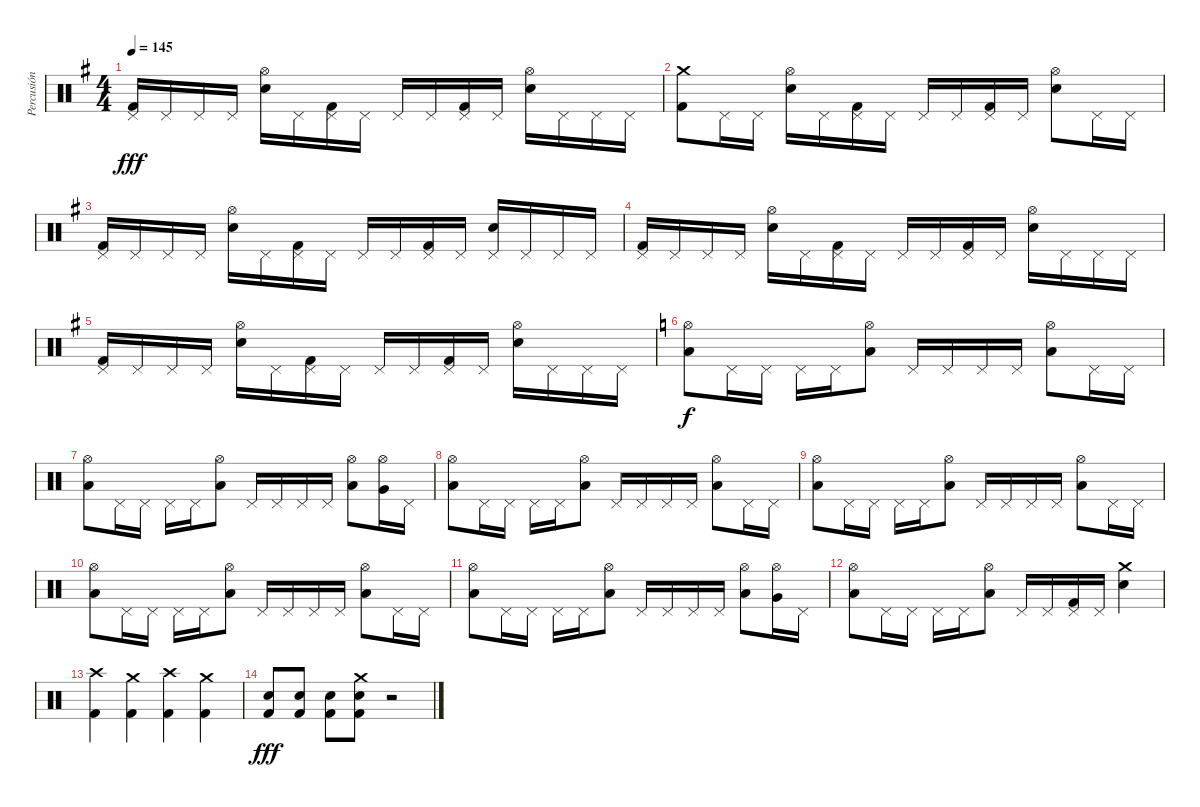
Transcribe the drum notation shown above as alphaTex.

\track ("Percusión" "Percusión") {instrument percussion}
\staff {score}
\articulation defaults
\ts (4 4)
\tempo 145
\clef neutral
\ks g
("Pedal Hi-Hat (hit)" "Kick (hit) 2").16{dy fff} "Pedal Hi-Hat (hit)".16 "Pedal Hi-Hat (hit)".16 "Pedal Hi-Hat (hit)".16 ("Hi-Hat (open)" "Electric Snare (hit)").16 "Pedal Hi-Hat (hit)".16 ("Pedal Hi-Hat (hit)" "Kick (hit) 2").16 "Pedal Hi-Hat (hit)".16 "Pedal Hi-Hat (hit)".16 "Pedal Hi-Hat (hit)".16 ("Pedal Hi-Hat (hit)" "Kick (hit) 2").16 "Pedal Hi-Hat (hit)".16 ("Hi-Hat (open)" "Electric Snare (hit)").16 "Pedal Hi-Hat (hit)".16 "Pedal Hi-Hat (hit)".16 "Pedal Hi-Hat (hit)".16 |
("Crash medium (hit)" "Kick (hit) 2").8 "Pedal Hi-Hat (hit)".16 "Pedal Hi-Hat (hit)".16 ("Hi-Hat (open)" "Electric Snare (hit)").16 "Pedal Hi-Hat (hit)".16 ("Pedal Hi-Hat (hit)" "Kick (hit) 2").16 "Pedal Hi-Hat (hit)".16 "Pedal Hi-Hat (hit)".16 "Pedal Hi-Hat (hit)".16 ("Pedal Hi-Hat (hit)" "Kick (hit) 2").16 "Pedal Hi-Hat (hit)".16 ("Hi-Hat (open)" "Electric Snare (hit)").8 "Pedal Hi-Hat (hit)".16 "Pedal Hi-Hat (hit)".16 |
("Pedal Hi-Hat (hit)" "Kick (hit) 2").16 "Pedal Hi-Hat (hit)".16 "Pedal Hi-Hat (hit)".16 "Pedal Hi-Hat (hit)".16 ("Hi-Hat (open)" "Electric Snare (hit)").16 "Pedal Hi-Hat (hit)".16 ("Pedal Hi-Hat (hit)" "Kick (hit) 2").16 "Pedal Hi-Hat (hit)".16 "Pedal Hi-Hat (hit)".16 "Pedal Hi-Hat (hit)".16 ("Pedal Hi-Hat (hit)" "Kick (hit) 2").16 "Pedal Hi-Hat (hit)".16 ("Pedal Hi-Hat (hit)" "Electric Snare (hit)").16 "Pedal Hi-Hat (hit)".16 "Pedal Hi-Hat (hit)".16 "Pedal Hi-Hat (hit)".16 |
("Pedal Hi-Hat (hit)" "Kick (hit) 2").16 "Pedal Hi-Hat (hit)".16 "Pedal Hi-Hat (hit)".16 "Pedal Hi-Hat (hit)".16 ("Hi-Hat (open)" "Electric Snare (hit)").16 "Pedal Hi-Hat (hit)".16 ("Pedal Hi-Hat (hit)" "Kick (hit) 2").16 "Pedal Hi-Hat (hit)".16 "Pedal Hi-Hat (hit)".16 "Pedal Hi-Hat (hit)".16 ("Pedal Hi-Hat (hit)" "Kick (hit) 2").16 "Pedal Hi-Hat (hit)".16 ("Hi-Hat (open)" "Electric Snare (hit)").16 "Pedal Hi-Hat (hit)".16 "Pedal Hi-Hat (hit)".16 "Pedal Hi-Hat (hit)".16 |
("Pedal Hi-Hat (hit)" "Kick (hit) 2").16 "Pedal Hi-Hat (hit)".16 "Pedal Hi-Hat (hit)".16 "Pedal Hi-Hat (hit)".16 ("Hi-Hat (open)" "Electric Snare (hit)").16 "Pedal Hi-Hat (hit)".16 ("Pedal Hi-Hat (hit)" "Kick (hit) 2").16 "Pedal Hi-Hat (hit)".16 "Pedal Hi-Hat (hit)".16 "Pedal Hi-Hat (hit)".16 ("Pedal Hi-Hat (hit)" "Kick (hit) 2").16 "Pedal Hi-Hat (hit)".16 ("Hi-Hat (open)" "Electric Snare (hit)").16 "Pedal Hi-Hat (hit)".16 "Pedal Hi-Hat (hit)".16 "Pedal Hi-Hat (hit)".16 |
\ks c
("Hi-Hat (open)" "Low Tom (hit)").8{dy f} "Pedal Hi-Hat (hit)".16 "Pedal Hi-Hat (hit)".16 "Pedal Hi-Hat (hit)".16 "Pedal Hi-Hat (hit)".16 ("Hi-Hat (open)" "Low Tom (hit)").8 "Pedal Hi-Hat (hit)".16 "Pedal Hi-Hat (hit)".16 "Pedal Hi-Hat (hit)".16 "Pedal Hi-Hat (hit)".16 ("Hi-Hat (open)" "Low Tom (hit)").8 "Pedal Hi-Hat (hit)".16 "Pedal Hi-Hat (hit)".16 |
("Hi-Hat (open)" "Low Tom (hit)").8 "Pedal Hi-Hat (hit)".16 "Pedal Hi-Hat (hit)".16 "Pedal Hi-Hat (hit)".16 "Pedal Hi-Hat (hit)".16 ("Hi-Hat (open)" "Low Tom (hit)").8 "Pedal Hi-Hat (hit)".16 "Pedal Hi-Hat (hit)".16 "Pedal Hi-Hat (hit)".16 "Pedal Hi-Hat (hit)".16 ("Hi-Hat (open)" "Low Tom (hit)").8 ("Hi-Hat (open)" "Very Low Tom (hit)").16 "Pedal Hi-Hat (hit)".16 |
("Hi-Hat (open)" "Low Tom (hit)").8 "Pedal Hi-Hat (hit)".16 "Pedal Hi-Hat (hit)".16 "Pedal Hi-Hat (hit)".16 "Pedal Hi-Hat (hit)".16 ("Hi-Hat (open)" "Low Tom (hit)").8 "Pedal Hi-Hat (hit)".16 "Pedal Hi-Hat (hit)".16 "Pedal Hi-Hat (hit)".16 "Pedal Hi-Hat (hit)".16 ("Hi-Hat (open)" "Low Tom (hit)").8 "Pedal Hi-Hat (hit)".16 "Pedal Hi-Hat (hit)".16 |
("Hi-Hat (open)" "Low Tom (hit)").8 "Pedal Hi-Hat (hit)".16 "Pedal Hi-Hat (hit)".16 "Pedal Hi-Hat (hit)".16 "Pedal Hi-Hat (hit)".16 ("Hi-Hat (open)" "Low Tom (hit)").8 "Pedal Hi-Hat (hit)".16 "Pedal Hi-Hat (hit)".16 "Pedal Hi-Hat (hit)".16 "Pedal Hi-Hat (hit)".16 ("Hi-Hat (open)" "Low Tom (hit)").8 "Pedal Hi-Hat (hit)".16 "Pedal Hi-Hat (hit)".16 |
("Hi-Hat (open)" "Low Tom (hit)").8 "Pedal Hi-Hat (hit)".16 "Pedal Hi-Hat (hit)".16 "Pedal Hi-Hat (hit)".16 "Pedal Hi-Hat (hit)".16 ("Hi-Hat (open)" "Low Tom (hit)").8 "Pedal Hi-Hat (hit)".16 "Pedal Hi-Hat (hit)".16 "Pedal Hi-Hat (hit)".16 "Pedal Hi-Hat (hit)".16 ("Hi-Hat (open)" "Low Tom (hit)").8 "Pedal Hi-Hat (hit)".16 "Pedal Hi-Hat (hit)".16 |
("Hi-Hat (open)" "Low Tom (hit)").8 "Pedal Hi-Hat (hit)".16 "Pedal Hi-Hat (hit)".16 "Pedal Hi-Hat (hit)".16 "Pedal Hi-Hat (hit)".16 ("Hi-Hat (open)" "Low Tom (hit)").8 "Pedal Hi-Hat (hit)".16 "Pedal Hi-Hat (hit)".16 "Pedal Hi-Hat (hit)".16 "Pedal Hi-Hat (hit)".16 ("Hi-Hat (open)" "Low Tom (hit)").8 ("Hi-Hat (open)" "Very Low Tom (hit)").16 "Pedal Hi-Hat (hit)".16 |
("Hi-Hat (open)" "Low Tom (hit)").8 "Pedal Hi-Hat (hit)".16 "Pedal Hi-Hat (hit)".16 "Pedal Hi-Hat (hit)".16 "Pedal Hi-Hat (hit)".16 ("Hi-Hat (open)" "Low Tom (hit)").8 "Pedal Hi-Hat (hit)".16 "Pedal Hi-Hat (hit)".16 ("Pedal Hi-Hat (hit)" "Kick (hit) 2").16 "Pedal Hi-Hat (hit)".16 ("Crash medium (hit)" "Electric Snare (hit)").4 |
("Crash high (hit)" "Kick (hit) 2").4 ("Crash medium (hit)" "Kick (hit) 2").4 ("Crash high (hit)" "Kick (hit) 2").4 ("Crash medium (hit)" "Kick (hit) 2").4 |
("Electric Snare (hit)" "Kick (hit) 2").8{dy fff} ("Electric Snare (hit)" "Kick (hit) 2").8 ("Electric Snare (hit)" "Kick (hit) 2").8 ("Crash medium (hit)" "Electric Snare (hit)" "Kick (hit) 2").8 r.2
